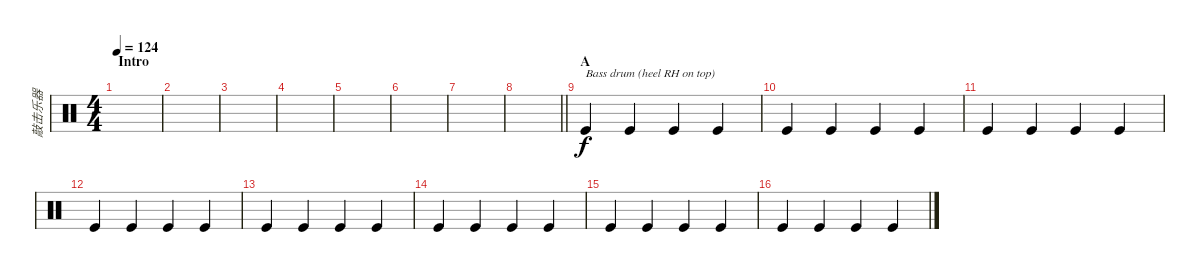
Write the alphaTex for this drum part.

\track ("敲击乐器" "敲击乐器") {instrument percussion}
\staff {score}
\articulation defaults
\ts (4 4)
\section ("" "Intro")
\tempo 124
\clef neutral
\ks c
|
|
|
|
|
|
|
\barLineRight lightlight
|
\section ("" "A")
"Kick (hit)".4{txt "Bass drum (heel RH on top)"} "Kick (hit)".4 "Kick (hit)".4 "Kick (hit)".4 |
"Kick (hit)".4 "Kick (hit)".4 "Kick (hit)".4 "Kick (hit)".4 |
"Kick (hit)".4 "Kick (hit)".4 "Kick (hit)".4 "Kick (hit)".4 |
"Kick (hit)".4 "Kick (hit)".4 "Kick (hit)".4 "Kick (hit)".4 |
"Kick (hit)".4 "Kick (hit)".4 "Kick (hit)".4 "Kick (hit)".4 |
"Kick (hit)".4 "Kick (hit)".4 "Kick (hit)".4 "Kick (hit)".4 |
"Kick (hit)".4 "Kick (hit)".4 "Kick (hit)".4 "Kick (hit)".4 |
"Kick (hit)".4 "Kick (hit)".4 "Kick (hit)".4 "Kick (hit)".4
